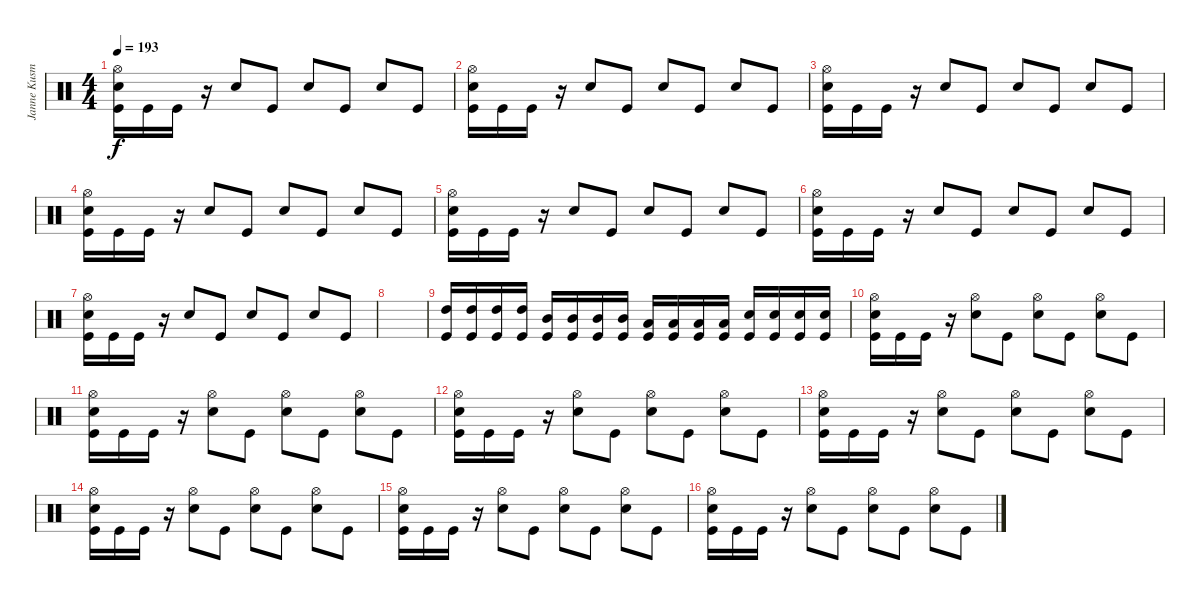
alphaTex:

\track ("Janne Kusmin " "Janne Kusm") {instrument percussion}
\staff {score}
\articulation defaults
\ts (4 4)
\tempo 193
\clef neutral
\ks c
("Hi-Hat (open)" "Snare (hit) 2" "Kick (hit)").16{dy f} "Kick (hit)".16 "Kick (hit)".16 r.16 "Snare (hit) 2".8 "Kick (hit)".8 "Snare (hit) 2".8 "Kick (hit)".8 "Snare (hit) 2".8 "Kick (hit)".8 |
("Hi-Hat (open)" "Snare (hit) 2" "Kick (hit)").16 "Kick (hit)".16 "Kick (hit)".16 r.16 "Snare (hit) 2".8 "Kick (hit)".8 "Snare (hit) 2".8 "Kick (hit)".8 "Snare (hit) 2".8 "Kick (hit)".8 |
("Hi-Hat (open)" "Snare (hit) 2" "Kick (hit)").16 "Kick (hit)".16 "Kick (hit)".16 r.16 "Snare (hit) 2".8 "Kick (hit)".8 "Snare (hit) 2".8 "Kick (hit)".8 "Snare (hit) 2".8 "Kick (hit)".8 |
("Hi-Hat (open)" "Snare (hit) 2" "Kick (hit)").16 "Kick (hit)".16 "Kick (hit)".16 r.16 "Snare (hit) 2".8 "Kick (hit)".8 "Snare (hit) 2".8 "Kick (hit)".8 "Snare (hit) 2".8 "Kick (hit)".8 |
("Hi-Hat (open)" "Snare (hit) 2" "Kick (hit)").16 "Kick (hit)".16 "Kick (hit)".16 r.16 "Snare (hit) 2".8 "Kick (hit)".8 "Snare (hit) 2".8 "Kick (hit)".8 "Snare (hit) 2".8 "Kick (hit)".8 |
("Hi-Hat (open)" "Snare (hit) 2" "Kick (hit)").16 "Kick (hit)".16 "Kick (hit)".16 r.16 "Snare (hit) 2".8 "Kick (hit)".8 "Snare (hit) 2".8 "Kick (hit)".8 "Snare (hit) 2".8 "Kick (hit)".8 |
("Hi-Hat (open)" "Snare (hit) 2" "Kick (hit)").16 "Kick (hit)".16 "Kick (hit)".16 r.16 "Snare (hit) 2".8 "Kick (hit)".8 "Snare (hit) 2".8 "Kick (hit)".8 "Snare (hit) 2".8 "Kick (hit)".8 |
|
("High Tom (hit)" "Kick (hit)").16 ("High Tom (hit)" "Kick (hit)").16 ("High Tom (hit)" "Kick (hit)").16 ("High Tom (hit)" "Kick (hit)").16 ("Mid Tom (hit)" "Kick (hit)").16 ("Mid Tom (hit)" "Kick (hit)").16 ("Mid Tom (hit)" "Kick (hit)").16 ("Mid Tom (hit)" "Kick (hit)").16 ("Low Tom (hit)" "Kick (hit)").16 ("Low Tom (hit)" "Kick (hit)").16 ("Low Tom (hit)" "Kick (hit)").16 ("Low Tom (hit)" "Kick (hit)").16 ("Snare (hit) 2" "Kick (hit)").16 ("Snare (hit) 2" "Kick (hit)").16 ("Snare (hit) 2" "Kick (hit)").16 ("Snare (hit) 2" "Kick (hit)").16 |
("Hi-Hat (open)" "Snare (hit) 2" "Kick (hit)").16 "Kick (hit)".16 "Kick (hit)".16 r.16 ("Hi-Hat (open)" "Snare (hit) 2").8 "Kick (hit)".8 ("Hi-Hat (open)" "Snare (hit) 2").8 "Kick (hit)".8 ("Hi-Hat (open)" "Snare (hit) 2").8 "Kick (hit)".8 |
("Hi-Hat (open)" "Snare (hit) 2" "Kick (hit)").16 "Kick (hit)".16 "Kick (hit)".16 r.16 ("Hi-Hat (open)" "Snare (hit) 2").8 "Kick (hit)".8 ("Hi-Hat (open)" "Snare (hit) 2").8 "Kick (hit)".8 ("Hi-Hat (open)" "Snare (hit) 2").8 "Kick (hit)".8 |
("Hi-Hat (open)" "Snare (hit) 2" "Kick (hit)").16 "Kick (hit)".16 "Kick (hit)".16 r.16 ("Hi-Hat (open)" "Snare (hit) 2").8 "Kick (hit)".8 ("Hi-Hat (open)" "Snare (hit) 2").8 "Kick (hit)".8 ("Hi-Hat (open)" "Snare (hit) 2").8 "Kick (hit)".8 |
("Hi-Hat (open)" "Snare (hit) 2" "Kick (hit)").16 "Kick (hit)".16 "Kick (hit)".16 r.16 ("Hi-Hat (open)" "Snare (hit) 2").8 "Kick (hit)".8 ("Hi-Hat (open)" "Snare (hit) 2").8 "Kick (hit)".8 ("Hi-Hat (open)" "Snare (hit) 2").8 "Kick (hit)".8 |
("Hi-Hat (open)" "Snare (hit) 2" "Kick (hit)").16 "Kick (hit)".16 "Kick (hit)".16 r.16 ("Hi-Hat (open)" "Snare (hit) 2").8 "Kick (hit)".8 ("Hi-Hat (open)" "Snare (hit) 2").8 "Kick (hit)".8 ("Hi-Hat (open)" "Snare (hit) 2").8 "Kick (hit)".8 |
("Hi-Hat (open)" "Snare (hit) 2" "Kick (hit)").16 "Kick (hit)".16 "Kick (hit)".16 r.16 ("Hi-Hat (open)" "Snare (hit) 2").8 "Kick (hit)".8 ("Hi-Hat (open)" "Snare (hit) 2").8 "Kick (hit)".8 ("Hi-Hat (open)" "Snare (hit) 2").8 "Kick (hit)".8 |
("Hi-Hat (open)" "Snare (hit) 2" "Kick (hit)").16 "Kick (hit)".16 "Kick (hit)".16 r.16 ("Hi-Hat (open)" "Snare (hit) 2").8 "Kick (hit)".8 ("Hi-Hat (open)" "Snare (hit) 2").8 "Kick (hit)".8 ("Hi-Hat (open)" "Snare (hit) 2").8 "Kick (hit)".8
